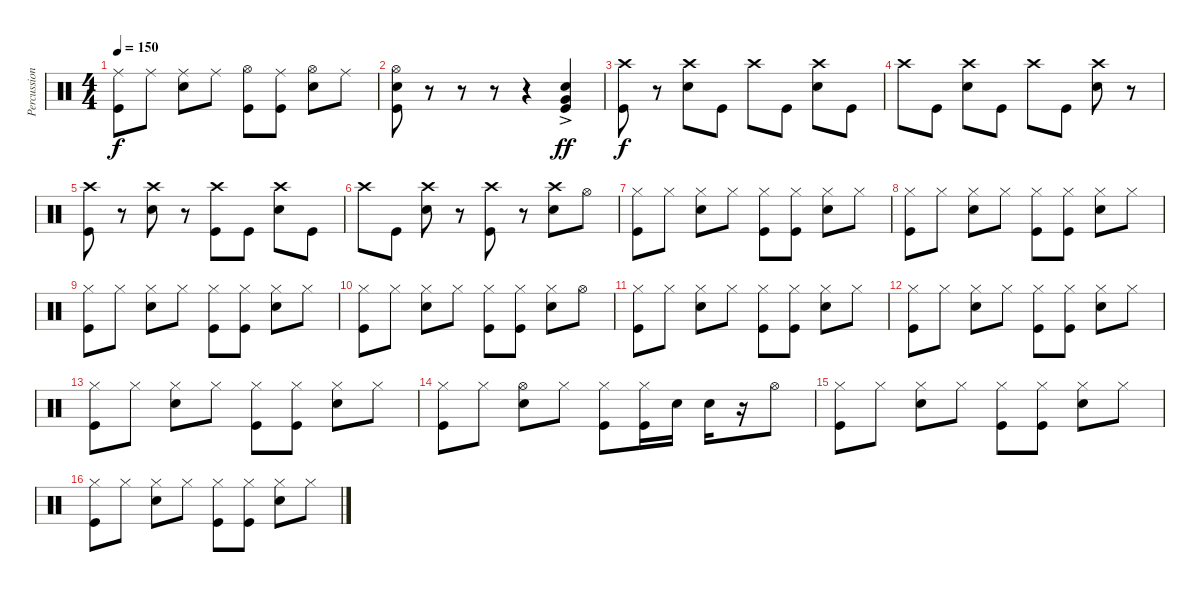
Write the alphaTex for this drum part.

\track ("Percussion" "Percussion") {instrument percussion}
\staff {score}
\articulation defaults
\ts (4 4)
\tempo 150
\clef neutral
\ks c
("Ride (middle)" "Kick (hit)").8{dy f} "Ride (middle)".8 ("Ride (middle)" "Snare (hit) 2").8 "Ride (middle)".8 ("Hi-Hat (open)" "Kick (hit)").8 ("Ride (middle)" "Kick (hit)").8 ("Hi-Hat (open)" "Snare (hit) 2").8 "Ride (middle)".8 |
("Hi-Hat (open)" "Snare (hit) 2" "Kick (hit)").8 r.8 r.8 r.8 r.4 ("Very Low Tom (hit)"{ac} "Snare (hit) 2" "Kick (hit)").4{dy ff} |
("Crash high (hit)" "Kick (hit)").8{dy f} r.8 ("Crash high (hit)" "Snare (hit) 2").8 "Kick (hit)".8 "Crash high (hit)".8 "Kick (hit)".8 ("Crash high (hit)" "Snare (hit) 2").8 "Kick (hit)".8 |
"Crash high (hit)".8 "Kick (hit)".8 ("Crash high (hit)" "Snare (hit) 2").8 "Kick (hit)".8 "Crash high (hit)".8 "Kick (hit)".8 ("Crash high (hit)" "Snare (hit) 2").8 r.8 |
("Crash high (hit)" "Kick (hit)").8 r.8 ("Crash high (hit)" "Snare (hit) 2").8 r.8 ("Crash high (hit)" "Kick (hit)").8 "Kick (hit)".8 ("Crash high (hit)" "Snare (hit) 2").8 "Kick (hit)".8 |
"Crash high (hit)".8 "Kick (hit)".8 ("Crash high (hit)" "Snare (hit) 2").8 r.8 ("Crash high (hit)" "Kick (hit)").8 r.8 ("Crash high (hit)" "Snare (hit) 2").8 "Hi-Hat (open)".8 |
("Hi-Hat (closed)" "Kick (hit)").8 "Hi-Hat (closed)".8 ("Hi-Hat (closed)" "Snare (hit) 2").8 "Hi-Hat (closed)".8 ("Hi-Hat (closed)" "Kick (hit)").8 ("Hi-Hat (closed)" "Kick (hit)").8 ("Hi-Hat (closed)" "Snare (hit) 2").8 "Hi-Hat (closed)".8 |
("Hi-Hat (closed)" "Kick (hit)").8 "Hi-Hat (closed)".8 ("Hi-Hat (closed)" "Snare (hit) 2").8 "Hi-Hat (closed)".8 ("Hi-Hat (closed)" "Kick (hit)").8 ("Hi-Hat (closed)" "Kick (hit)").8 ("Hi-Hat (closed)" "Snare (hit) 2").8 "Hi-Hat (closed)".8 |
("Hi-Hat (closed)" "Kick (hit)").8 "Hi-Hat (closed)".8 ("Hi-Hat (closed)" "Snare (hit) 2").8 "Hi-Hat (closed)".8 ("Hi-Hat (closed)" "Kick (hit)").8 ("Hi-Hat (closed)" "Kick (hit)").8 ("Hi-Hat (closed)" "Snare (hit) 2").8 "Hi-Hat (closed)".8 |
("Hi-Hat (closed)" "Kick (hit)").8 "Hi-Hat (closed)".8 ("Hi-Hat (closed)" "Snare (hit) 2").8 "Hi-Hat (closed)".8 ("Hi-Hat (closed)" "Kick (hit)").8 ("Hi-Hat (closed)" "Kick (hit)").8 ("Hi-Hat (closed)" "Snare (hit) 2").8 "Hi-Hat (open)".8 |
("Hi-Hat (closed)" "Kick (hit)").8 "Hi-Hat (closed)".8 ("Hi-Hat (closed)" "Snare (hit) 2").8 "Hi-Hat (closed)".8 ("Hi-Hat (closed)" "Kick (hit)").8 ("Hi-Hat (closed)" "Kick (hit)").8 ("Hi-Hat (closed)" "Snare (hit) 2").8 "Hi-Hat (closed)".8 |
("Hi-Hat (closed)" "Kick (hit)").8 "Hi-Hat (closed)".8 ("Hi-Hat (closed)" "Snare (hit) 2").8 "Hi-Hat (closed)".8 ("Hi-Hat (closed)" "Kick (hit)").8 ("Hi-Hat (closed)" "Kick (hit)").8 ("Hi-Hat (closed)" "Snare (hit) 2").8 "Hi-Hat (closed)".8 |
("Hi-Hat (closed)" "Kick (hit)").8 "Hi-Hat (closed)".8 ("Hi-Hat (closed)" "Snare (hit) 2").8 "Hi-Hat (closed)".8 ("Hi-Hat (closed)" "Kick (hit)").8 ("Hi-Hat (closed)" "Kick (hit)").8 ("Hi-Hat (closed)" "Snare (hit) 2").8 "Hi-Hat (closed)".8 |
("Hi-Hat (closed)" "Kick (hit)").8 "Hi-Hat (closed)".8 ("Hi-Hat (open)" "Snare (hit) 2").8 "Hi-Hat (closed)".8 ("Hi-Hat (closed)" "Kick (hit)").8 ("Hi-Hat (closed)" "Kick (hit)").16 "Snare (hit) 2".16 "Snare (hit) 2".16 r.16 "Hi-Hat (open)".8 |
("Hi-Hat (closed)" "Kick (hit)").8 "Hi-Hat (closed)".8 ("Hi-Hat (closed)" "Snare (hit) 2").8 "Hi-Hat (closed)".8 ("Hi-Hat (closed)" "Kick (hit)").8 ("Hi-Hat (closed)" "Kick (hit)").8 ("Hi-Hat (closed)" "Snare (hit) 2").8 "Hi-Hat (closed)".8 |
("Hi-Hat (closed)" "Kick (hit)").8 "Hi-Hat (closed)".8 ("Hi-Hat (closed)" "Snare (hit) 2").8 "Hi-Hat (closed)".8 ("Hi-Hat (closed)" "Kick (hit)").8 ("Hi-Hat (closed)" "Kick (hit)").8 ("Hi-Hat (closed)" "Snare (hit) 2").8 "Hi-Hat (closed)".8
